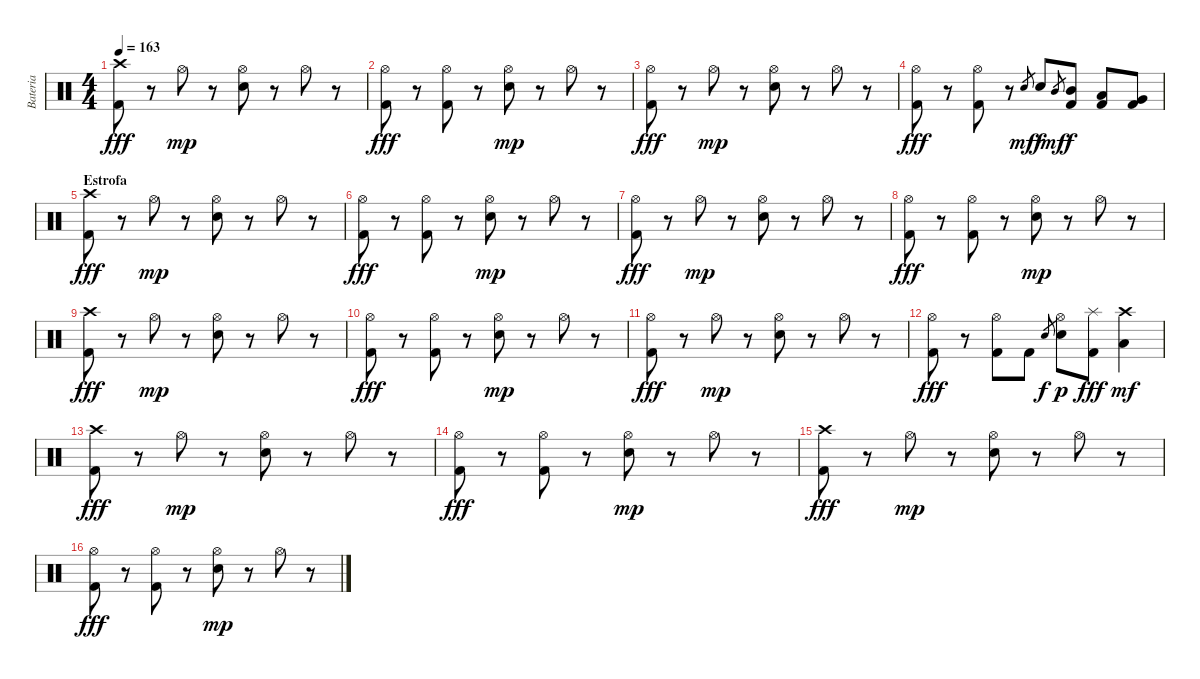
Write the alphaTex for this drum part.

\track ("Bateria" "Bateria") {instrument percussion}
\staff {score}
\articulation defaults
\ts (4 4)
\tempo 163
\clef neutral
\ks c
("Crash high (hit)" "Kick (hit) 2").8{dy fff} r.8 "Hi-Hat (open)".8{dy mp} r.8 ("Hi-Hat (open)" "Electric Snare (hit)").8 r.8 "Hi-Hat (open)".8 r.8 |
("Hi-Hat (open)" "Kick (hit) 2").8{dy fff} r.8 ("Hi-Hat (open)" "Kick (hit) 2").8 r.8 ("Hi-Hat (open)" "Electric Snare (hit)").8{dy mp} r.8 "Hi-Hat (open)".8 r.8 |
("Hi-Hat (open)" "Kick (hit) 2").8{dy fff} r.8 "Hi-Hat (open)".8{dy mp} r.8 ("Hi-Hat (open)" "Electric Snare (hit)").8 r.8 "Hi-Hat (open)".8 r.8 |
("Hi-Hat (open)" "Kick (hit) 2").8{dy fff} r.8 ("Hi-Hat (open)" "Kick (hit) 2").8 r.8 "Electric Snare (hit)".8{gr dy mf} "Electric Snare (hit)".8{dy f} "Mid Tom (hit)".8{gr dy mf} ("Mid Tom (hit)" "Kick (hit) 2").8{dy f} ("Low Tom (hit)" "Kick (hit) 2").8 ("Very Low Tom (hit)" "Kick (hit) 2").8 |
\section ("" "Estrofa")
("Crash high (hit)" "Kick (hit) 2").8{dy fff} r.8 "Hi-Hat (open)".8{dy mp} r.8 ("Hi-Hat (open)" "Electric Snare (hit)").8 r.8 "Hi-Hat (open)".8 r.8 |
("Hi-Hat (open)" "Kick (hit) 2").8{dy fff} r.8 ("Hi-Hat (open)" "Kick (hit) 2").8 r.8 ("Hi-Hat (open)" "Electric Snare (hit)").8{dy mp} r.8 "Hi-Hat (open)".8 r.8 |
("Hi-Hat (open)" "Kick (hit) 2").8{dy fff} r.8 "Hi-Hat (open)".8{dy mp} r.8 ("Hi-Hat (open)" "Electric Snare (hit)").8 r.8 "Hi-Hat (open)".8 r.8 |
("Hi-Hat (open)" "Kick (hit) 2").8{dy fff} r.8 ("Hi-Hat (open)" "Kick (hit) 2").8 r.8 ("Hi-Hat (open)" "Electric Snare (hit)").8{dy mp} r.8 "Hi-Hat (open)".8 r.8 |
("Crash high (hit)" "Kick (hit) 2").8{dy fff} r.8 "Hi-Hat (open)".8{dy mp} r.8 ("Hi-Hat (open)" "Electric Snare (hit)").8 r.8 "Hi-Hat (open)".8 r.8 |
("Hi-Hat (open)" "Kick (hit) 2").8{dy fff} r.8 ("Hi-Hat (open)" "Kick (hit) 2").8 r.8 ("Hi-Hat (open)" "Electric Snare (hit)").8{dy mp} r.8 "Hi-Hat (open)".8 r.8 |
("Hi-Hat (open)" "Kick (hit) 2").8{dy fff} r.8 "Hi-Hat (open)".8{dy mp} r.8 ("Hi-Hat (open)" "Electric Snare (hit)").8 r.8 "Hi-Hat (open)".8 r.8 |
("Hi-Hat (open)" "Kick (hit) 2").8{dy fff} r.8 ("Hi-Hat (open)" "Kick (hit) 2").8 "Kick (hit) 2".8 "Electric Snare (hit)".8{gr dy f} ("Hi-Hat (open)" "Electric Snare (hit)").8{dy p} ("Splash (hit)" "Kick (hit) 2").8{dy fff} ("Crash high (hit)" "Low Tom (hit)").4{dy mf} |
("Crash high (hit)" "Kick (hit) 2").8{dy fff} r.8 "Hi-Hat (open)".8{dy mp} r.8 ("Hi-Hat (open)" "Electric Snare (hit)").8 r.8 "Hi-Hat (open)".8 r.8 |
("Hi-Hat (open)" "Kick (hit) 2").8{dy fff} r.8 ("Hi-Hat (open)" "Kick (hit) 2").8 r.8 ("Hi-Hat (open)" "Electric Snare (hit)").8{dy mp} r.8 "Hi-Hat (open)".8 r.8 |
("Crash high (hit)" "Kick (hit) 2").8{dy fff} r.8 "Hi-Hat (open)".8{dy mp} r.8 ("Hi-Hat (open)" "Electric Snare (hit)").8 r.8 "Hi-Hat (open)".8 r.8 |
("Hi-Hat (open)" "Kick (hit) 2").8{dy fff} r.8 ("Hi-Hat (open)" "Kick (hit) 2").8 r.8 ("Hi-Hat (open)" "Electric Snare (hit)").8{dy mp} r.8 "Hi-Hat (open)".8 r.8
